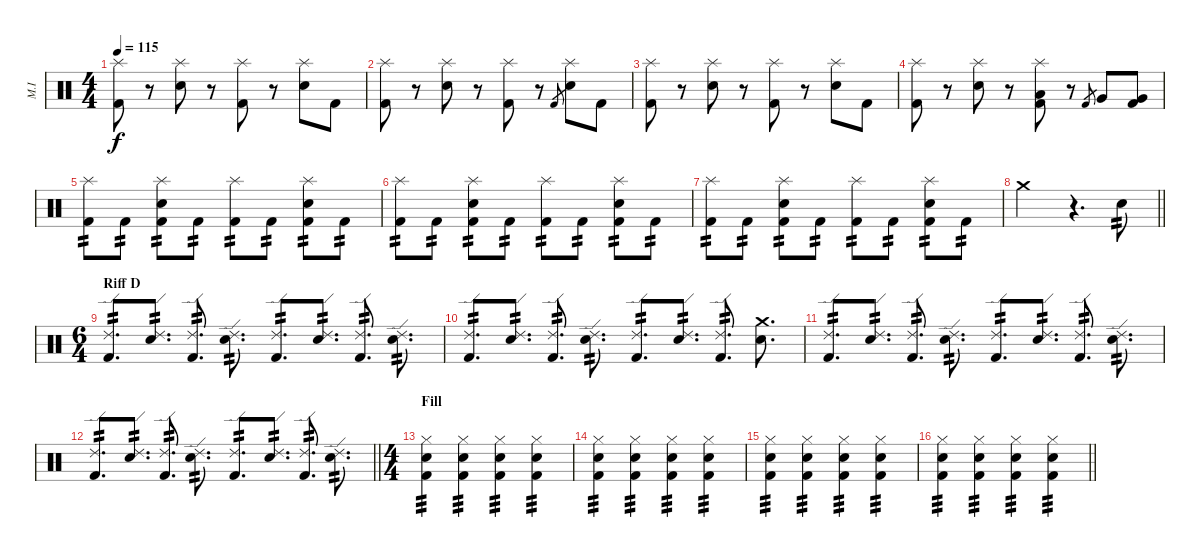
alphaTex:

\track ("M.I" "M.I") {instrument percussion}
\staff {score}
\articulation defaults
\ts (4 4)
\tempo 115
\clef neutral
\ks c
("Splash (hit)" "Kick (hit) 2").8{dy f} r.8 ("Splash (hit)" "Snare (hit) 2").8 r.8 ("Splash (hit)" "Kick (hit) 2").8 r.8 ("Splash (hit)" "Snare (hit) 2").8 "Kick (hit) 2".8 |
("Splash (hit)" "Kick (hit) 2").8 r.8 ("Splash (hit)" "Snare (hit) 2").8 r.8 ("Splash (hit)" "Kick (hit) 2").8 r.8 "Kick (hit) 2".8{gr} ("Splash (hit)" "Snare (hit) 2").8 "Kick (hit) 2".8 |
("Splash (hit)" "Kick (hit) 2").8 r.8 ("Splash (hit)" "Snare (hit) 2").8 r.8 ("Splash (hit)" "Kick (hit) 2").8 r.8 ("Splash (hit)" "Snare (hit) 2").8 "Kick (hit) 2".8 |
("Splash (hit)" "Kick (hit) 2").8 r.8 ("Splash (hit)" "Snare (hit) 2").8 r.8 ("Splash (hit)" "Low Tom (hit)" "Kick (hit) 2").8 r.8 "Kick (hit) 2".8{gr} "Very Low Tom (hit)".8 ("Very Low Tom (hit)" "Kick (hit) 2").8 |
("Splash (hit)" "Kick (hit) 2").8{tp 2} "Kick (hit) 2".8{tp 2} ("Splash (hit)" "Snare (hit) 2" "Kick (hit) 2").8{tp 2} "Kick (hit) 2".8{tp 2} ("Splash (hit)" "Kick (hit) 2").8{tp 2} "Kick (hit) 2".8{tp 2} ("Splash (hit)" "Snare (hit) 2" "Kick (hit) 2").8{tp 2} "Kick (hit) 2".8{tp 2} |
("Splash (hit)" "Kick (hit) 2").8{tp 2} "Kick (hit) 2".8{tp 2} ("Splash (hit)" "Snare (hit) 2" "Kick (hit) 2").8{tp 2} "Kick (hit) 2".8{tp 2} ("Splash (hit)" "Kick (hit) 2").8{tp 2} "Kick (hit) 2".8{tp 2} ("Splash (hit)" "Snare (hit) 2" "Kick (hit) 2").8{tp 2} "Kick (hit) 2".8{tp 2} |
("Splash (hit)" "Kick (hit) 2").8{tp 2} "Kick (hit) 2".8{tp 2} ("Splash (hit)" "Snare (hit) 2" "Kick (hit) 2").8{tp 2} "Kick (hit) 2".8{tp 2} ("Splash (hit)" "Kick (hit) 2").8{tp 2} "Kick (hit) 2".8{tp 2} ("Splash (hit)" "Snare (hit) 2" "Kick (hit) 2").8{tp 2} "Kick (hit) 2".8{tp 2} |
\barLineRight lightlight "Crash medium (hit)".2
r.4{d} "Snare (hit) 2".8{tp 2} |
\ts (6 4)
\section ("" "Riff D")
("Ride (edge) 2" "Kick (hit) 2").8{d tp 2} ("Ride (edge) 2" "Snare (hit) 2").8{d tp 2} ("Ride (edge) 2" "Kick (hit) 2").8{d tp 2} ("Ride (edge) 2" "Snare (hit) 2").8{d tp 2} ("Ride (edge) 2" "Kick (hit) 2").8{d tp 2} ("Ride (edge) 2" "Snare (hit) 2").8{d tp 2} ("Ride (edge) 2" "Kick (hit) 2").8{d tp 2} ("Ride (edge) 2" "Snare (hit) 2").8{d tp 2} |
("Ride (edge) 2" "Kick (hit) 2").8{d tp 2} ("Ride (edge) 2" "Snare (hit) 2").8{d tp 2} ("Ride (edge) 2" "Kick (hit) 2").8{d tp 2} ("Ride (edge) 2" "Snare (hit) 2").8{d tp 2} ("Ride (edge) 2" "Kick (hit) 2").8{d tp 2} ("Ride (edge) 2" "Snare (hit) 2").8{d tp 2} ("Ride (edge) 2" "Kick (hit) 2").8{d tp 2} ("Crash medium (hit)" "Snare (hit) 2").8{d} |
("Ride (edge) 2" "Kick (hit) 2").8{d tp 2} ("Ride (edge) 2" "Snare (hit) 2").8{d tp 2} ("Ride (edge) 2" "Kick (hit) 2").8{d tp 2} ("Ride (edge) 2" "Snare (hit) 2").8{d tp 2} ("Ride (edge) 2" "Kick (hit) 2").8{d tp 2} ("Ride (edge) 2" "Snare (hit) 2").8{d tp 2} ("Ride (edge) 2" "Kick (hit) 2").8{d tp 2} ("Ride (edge) 2" "Snare (hit) 2").8{d tp 2} |
\barLineRight lightlight
("Ride (edge) 2" "Kick (hit) 2").8{d tp 2} ("Ride (edge) 2" "Snare (hit) 2").8{d tp 2} ("Ride (edge) 2" "Kick (hit) 2").8{d tp 2} ("Ride (edge) 2" "Snare (hit) 2").8{d tp 2} ("Ride (edge) 2" "Kick (hit) 2").8{d tp 2} ("Ride (edge) 2" "Snare (hit) 2").8{d tp 2} ("Ride (edge) 2" "Kick (hit) 2").8{d tp 2} ("Ride (edge) 2" "Snare (hit) 2").8{d tp 2} |
\ts (4 4)
\section ("" "Fill")
("Hi-Hat (closed)" "Snare (hit) 2" "Kick (hit) 2").4{tp 3} ("Hi-Hat (closed)" "Snare (hit) 2" "Kick (hit) 2").4{tp 3} ("Hi-Hat (closed)" "Snare (hit) 2" "Kick (hit) 2").4{tp 3} ("Hi-Hat (closed)" "Snare (hit) 2" "Kick (hit) 2").4{tp 3} |
("Hi-Hat (closed)" "Snare (hit) 2" "Kick (hit) 2").4{tp 3} ("Hi-Hat (closed)" "Snare (hit) 2" "Kick (hit) 2").4{tp 3} ("Hi-Hat (closed)" "Snare (hit) 2" "Kick (hit) 2").4{tp 3} ("Hi-Hat (closed)" "Snare (hit) 2" "Kick (hit) 2").4{tp 3} |
("Hi-Hat (closed)" "Snare (hit) 2" "Kick (hit) 2").4{tp 3} ("Hi-Hat (closed)" "Snare (hit) 2" "Kick (hit) 2").4{tp 3} ("Hi-Hat (closed)" "Snare (hit) 2" "Kick (hit) 2").4{tp 3} ("Hi-Hat (closed)" "Snare (hit) 2" "Kick (hit) 2").4{tp 3} |
\barLineRight lightlight
("Hi-Hat (closed)" "Snare (hit) 2" "Kick (hit) 2").4{tp 3} ("Hi-Hat (closed)" "Snare (hit) 2" "Kick (hit) 2").4{tp 3} ("Hi-Hat (closed)" "Snare (hit) 2" "Kick (hit) 2").4{tp 3} ("Hi-Hat (closed)" "Snare (hit) 2" "Kick (hit) 2").4{tp 3}
